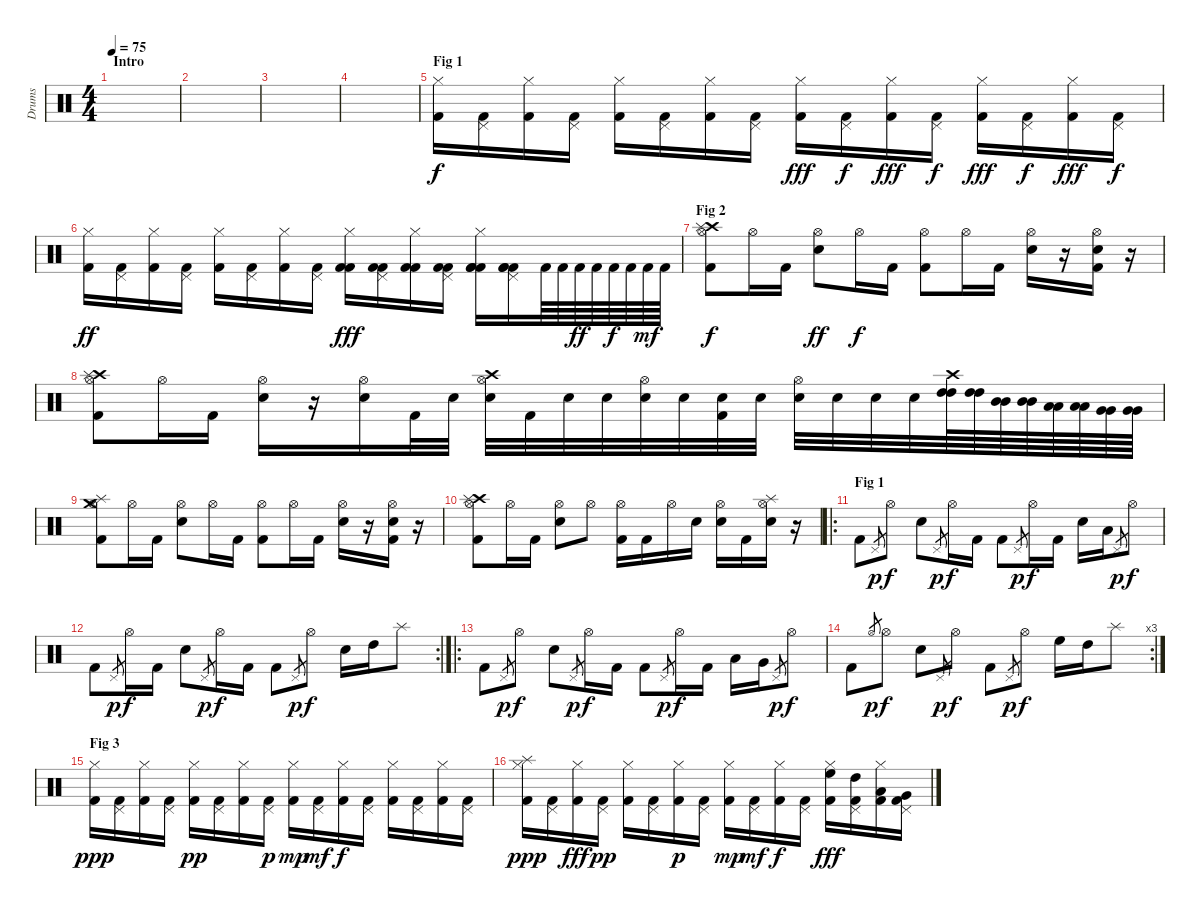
\track ("Drums" "Drums") {instrument percussion}
\staff {score}
\articulation defaults
\ts (4 4)
\section ("" "Intro")
\tempo 75
\clef neutral
\ks c
|
|
|
|
\section ("" "Fig 1")
("Kick (hit) 2" "Hi-Hat (closed)").16{volume 13} ("Kick (hit) 2" "Pedal Hi-Hat (hit)").16 ("Kick (hit) 2" "Hi-Hat (closed)").16 ("Kick (hit) 2" "Pedal Hi-Hat (hit)").16 ("Kick (hit) 2" "Hi-Hat (closed)").16 ("Kick (hit) 2" "Pedal Hi-Hat (hit)").16 ("Kick (hit) 2" "Hi-Hat (closed)").16 ("Kick (hit) 2" "Pedal Hi-Hat (hit)").16 ("Kick (hit) 2" "Hi-Hat (closed)").16{dy fff} ("Kick (hit) 2" "Pedal Hi-Hat (hit)").16{dy f} ("Kick (hit) 2" "Hi-Hat (closed)").16{dy fff} ("Kick (hit) 2" "Pedal Hi-Hat (hit)").16{dy f} ("Kick (hit) 2" "Hi-Hat (closed)").16{dy fff} ("Kick (hit) 2" "Pedal Hi-Hat (hit)").16{dy f} ("Kick (hit) 2" "Hi-Hat (closed)").16{dy fff} ("Kick (hit) 2" "Pedal Hi-Hat (hit)").16{dy f} |
("Kick (hit) 2" "Hi-Hat (closed)").16{dy ff} ("Kick (hit) 2" "Pedal Hi-Hat (hit)").16 ("Kick (hit) 2" "Hi-Hat (closed)").16 ("Kick (hit) 2" "Pedal Hi-Hat (hit)").16 ("Kick (hit) 2" "Hi-Hat (closed)").16 ("Kick (hit) 2" "Pedal Hi-Hat (hit)").16 ("Kick (hit) 2" "Hi-Hat (closed)").16 ("Kick (hit) 2" "Pedal Hi-Hat (hit)").16 ("Kick (hit) 2" "Hi-Hat (closed)" "Kick (hit) 2").16{dy fff} ("Kick (hit) 2" "Pedal Hi-Hat (hit)" "Kick (hit) 2").16 ("Kick (hit) 2" "Hi-Hat (closed)" "Kick (hit) 2").16 ("Kick (hit) 2" "Pedal Hi-Hat (hit)" "Kick (hit) 2").16 ("Kick (hit) 2" "Hi-Hat (closed)" "Kick (hit) 2" "Kick (hit) 2").16 ("Kick (hit) 2" "Pedal Hi-Hat (hit)" "Kick (hit) 2" "Kick (hit) 2").16 "Kick (hit) 2".64 "Kick (hit) 2".64 "Kick (hit) 2".64{dy ff} "Kick (hit) 2".64 "Kick (hit) 2".64{dy f} "Kick (hit) 2".64 "Kick (hit) 2".64{dy mf} "Kick (hit) 2".64 |
\section ("" "Fig 2")
("Hi-Hat (open)" "Kick (hit) 2" "Crash high (hit)" "Splash (hit)").8{dy f} "Hi-Hat (open)".16 "Kick (hit) 2".16 ("Hi-Hat (open)" "Snare (hit) 2").8{dy ff} "Hi-Hat (open)".16{dy f} "Kick (hit) 2".16 ("Hi-Hat (open)" "Kick (hit) 2").8 "Hi-Hat (open)".16 "Kick (hit) 2".16 ("Hi-Hat (open)" "Snare (hit) 2").16 r.16 ("Hi-Hat (open)" "Kick (hit) 2" "Snare (hit) 2").16 r.16 |
("Hi-Hat (open)" "Kick (hit) 2" "Crash high (hit)" "Splash (hit)").8 "Hi-Hat (open)".16 "Kick (hit) 2".16 ("Hi-Hat (open)" "Snare (hit) 2").16 r.16 ("Hi-Hat (open)" "Snare (hit) 2").16 "Kick (hit) 2".32 "Snare (hit) 2".32 ("Hi-Hat (open)" "Snare (hit) 2" "Crash high (hit)").32 "Kick (hit) 2".32 "Snare (hit) 2".32 "Snare (hit) 2".32 ("Hi-Hat (open)" "Snare (hit) 2").32 "Snare (hit) 2".32 ("Kick (hit) 2" "Snare (hit) 2").32 "Snare (hit) 2".32 ("Hi-Hat (open)" "Snare (hit) 2").32 "Snare (hit) 2".32 "Snare (hit) 2".32 "Snare (hit) 2".32 ("High Tom (hit)" "High Tom (hit)" "Crash high (hit)").64 ("High Tom (hit)" "High Tom (hit)").64 ("Mid Tom (hit)" "Mid Tom (hit)").64 ("Mid Tom (hit)" "Mid Tom (hit)").64 ("Low Tom (hit)" "Low Tom (hit)").64 ("Low Tom (hit)" "Low Tom (hit)").64 ("Very Low Tom (hit)" "Very Low Tom (hit)").64 ("Very Low Tom (hit)" "Very Low Tom (hit)").64 |
("Hi-Hat (open)" "Kick (hit) 2" "Crash medium (hit)" "Splash (hit)").8 "Hi-Hat (open)".16 "Kick (hit) 2".16 ("Hi-Hat (open)" "Snare (hit) 2").8 "Hi-Hat (open)".16 "Kick (hit) 2".16 ("Hi-Hat (open)" "Kick (hit) 2").8 "Hi-Hat (open)".16 "Kick (hit) 2".16 ("Hi-Hat (open)" "Snare (hit) 2").16 r.16 ("Hi-Hat (open)" "Kick (hit) 2" "Snare (hit) 2").16 r.16 |
("Hi-Hat (open)" "Kick (hit) 2" "Crash high (hit)" "Splash (hit)").8 "Hi-Hat (open)".16 "Kick (hit) 2".16 ("Hi-Hat (open)" "Snare (hit) 2").8 "Hi-Hat (open)".8 ("Hi-Hat (open)" "Kick (hit) 2").16 "Kick (hit) 2".16 "Hi-Hat (open)".16 "Snare (hit) 2".16 ("Hi-Hat (open)" "Snare (hit) 2").16 "Kick (hit) 2".16 ("Hi-Hat (open)" "Electric Snare (hit)" "Splash (hit)").16 r.16 |
\ro
\section ("" "Fig 1")
"Kick (hit) 2".8 "Pedal Hi-Hat (hit)".8{gr dy p} "Hi-Hat (open)".8{dy f} "Snare (hit) 2".8 "Pedal Hi-Hat (hit)".8{gr dy p} "Hi-Hat (open)".16{dy f} "Kick (hit) 2".16 "Kick (hit) 2".8 "Pedal Hi-Hat (hit)".8{gr dy p} "Hi-Hat (open)".16{dy f} "Kick (hit) 2".16 "Snare (hit) 2".16 "Low Tom (hit)".16 "Pedal Hi-Hat (hit)".8{gr dy p} "Hi-Hat (open)".8{dy f} |
\rc 2 "Kick (hit) 2".8 "Pedal Hi-Hat (hit)".8{gr dy p} "Hi-Hat (open)".16{dy f} "Kick (hit) 2".16 "Snare (hit) 2".8 "Pedal Hi-Hat (hit)".8{gr dy p} "Hi-Hat (open)".16{dy f} "Kick (hit) 2".16 "Kick (hit) 2".8 "Pedal Hi-Hat (hit)"{sl}.8{gr dy p} "Hi-Hat (open)".8{dy f} "Snare (hit) 2".16 "High Tom (hit)".16 "Splash (hit)".8
|
\ro "Kick (hit) 2".8 "Pedal Hi-Hat (hit)".8{gr dy p} "Hi-Hat (open)".8{dy f} "Snare (hit) 2".8 "Pedal Hi-Hat (hit)".8{gr dy p} "Hi-Hat (open)".16{dy f} "Kick (hit) 2".16 "Kick (hit) 2".8 "Pedal Hi-Hat (hit)"{sl}.8{gr dy p} "Hi-Hat (open)".16{dy f} "Kick (hit) 2".16 "Low Tom (hit)".16 "Very Low Tom (hit)".16 "Pedal Hi-Hat (hit)".8{gr dy p} "Hi-Hat (open)".8{dy f}
|
\rc 3 "Kick (hit) 2".8 "Hi-Hat (open)".8{gr dy p} "Hi-Hat (open)".8{dy f} "Snare (hit) 2".8 "Pedal Hi-Hat (hit)".8{gr dy p} "Hi-Hat (open)".8{dy f} "Kick (hit) 2".8 "Pedal Hi-Hat (hit)".8{gr dy p} "Hi-Hat (open)".8{dy f} "High Floor Tom (hit)".16 "High Tom (hit)".16 "Splash (hit)".8
|
\section ("" "Fig 3")
("Kick (hit) 2" "Hi-Hat (closed)").16{dy ppp} ("Kick (hit) 2" "Pedal Hi-Hat (hit)").16 ("Kick (hit) 2" "Hi-Hat (closed)").16 ("Kick (hit) 2" "Pedal Hi-Hat (hit)").16 ("Kick (hit) 2" "Hi-Hat (closed)").16{dy pp} ("Kick (hit) 2" "Pedal Hi-Hat (hit)").16 ("Kick (hit) 2" "Hi-Hat (closed)").16 ("Kick (hit) 2" "Pedal Hi-Hat (hit)").16{dy p} ("Kick (hit) 2" "Hi-Hat (closed)").16{dy mp} ("Kick (hit) 2" "Pedal Hi-Hat (hit)").16{dy mf} ("Kick (hit) 2" "Hi-Hat (closed)").16{dy f} ("Kick (hit) 2" "Pedal Hi-Hat (hit)").16 ("Kick (hit) 2" "Hi-Hat (closed)").16 ("Kick (hit) 2" "Pedal Hi-Hat (hit)").16 ("Kick (hit) 2" "Hi-Hat (closed)").16 ("Kick (hit) 2" "Pedal Hi-Hat (hit)").16 |
("Kick (hit) 2" "Hi-Hat (closed)" "Splash (hit)").16{dy ppp} ("Kick (hit) 2" "Pedal Hi-Hat (hit)").16 ("Kick (hit) 2" "Hi-Hat (closed)").16{dy fff} ("Kick (hit) 2" "Pedal Hi-Hat (hit)").16{dy pp} ("Kick (hit) 2" "Hi-Hat (closed)").16 ("Kick (hit) 2" "Pedal Hi-Hat (hit)").16 ("Kick (hit) 2" "Hi-Hat (closed)").16{dy p} ("Kick (hit) 2" "Pedal Hi-Hat (hit)").16 ("Kick (hit) 2" "Hi-Hat (closed)").16{dy mp} ("Kick (hit) 2" "Pedal Hi-Hat (hit)").16{dy mf} ("Kick (hit) 2" "Hi-Hat (closed)").16{dy f} ("Kick (hit) 2" "Pedal Hi-Hat (hit)").16 ("Kick (hit) 2" "Hi-Hat (closed)" "High Floor Tom (hit)").16{dy fff} ("Kick (hit) 2" "Pedal Hi-Hat (hit)" "High Tom (hit)").16 ("Kick (hit) 2" "Hi-Hat (closed)" "Low Tom (hit)").16 ("Kick (hit) 2" "Pedal Hi-Hat (hit)" "Very Low Tom (hit)").16
